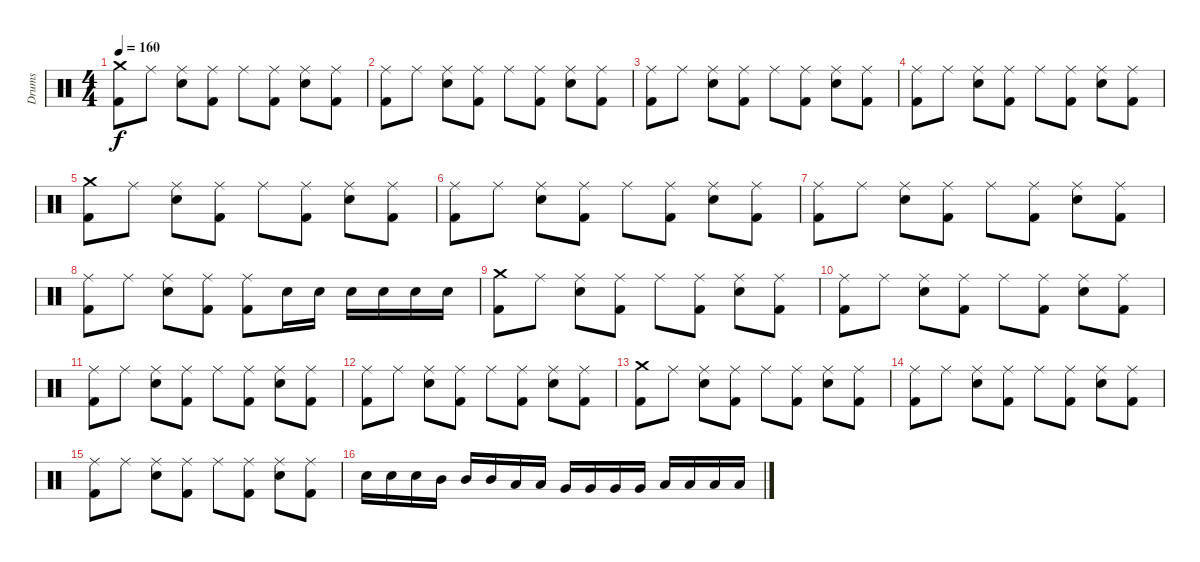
\track ("Drums" "Drums") {instrument percussion}
\staff {score}
\articulation defaults
\ts (4 4)
\tempo 160
\clef neutral
\ks c
("Kick (hit) 2" "Crash medium (hit)").8{dy f} "Ride (middle)".8 ("Electric Snare (hit)" "Ride (middle)").8 ("Kick (hit) 2" "Ride (middle)").8 "Ride (middle)".8 ("Kick (hit) 2" "Ride (middle)").8 ("Electric Snare (hit)" "Ride (middle)").8 ("Kick (hit) 2" "Ride (middle)").8 |
("Kick (hit) 2" "Ride (middle)").8 "Ride (middle)".8 ("Electric Snare (hit)" "Ride (middle)").8 ("Kick (hit) 2" "Ride (middle)").8 "Ride (middle)".8 ("Kick (hit) 2" "Ride (middle)").8 ("Electric Snare (hit)" "Ride (middle)").8 ("Kick (hit) 2" "Ride (middle)").8 |
("Kick (hit) 2" "Ride (middle)").8 "Ride (middle)".8 ("Electric Snare (hit)" "Ride (middle)").8 ("Kick (hit) 2" "Ride (middle)").8 "Ride (middle)".8 ("Kick (hit) 2" "Ride (middle)").8 ("Electric Snare (hit)" "Ride (middle)").8 ("Kick (hit) 2" "Ride (middle)").8 |
("Kick (hit) 2" "Ride (middle)").8 "Ride (middle)".8 ("Electric Snare (hit)" "Ride (middle)").8 ("Kick (hit) 2" "Ride (middle)").8 "Ride (middle)".8 ("Kick (hit) 2" "Ride (middle)").8 ("Electric Snare (hit)" "Ride (middle)").8 ("Kick (hit) 2" "Ride (middle)").8 |
("Kick (hit) 2" "Crash medium (hit)").8 "Ride (middle)".8 ("Electric Snare (hit)" "Ride (middle)").8 ("Kick (hit) 2" "Ride (middle)").8 "Ride (middle)".8 ("Kick (hit) 2" "Ride (middle)").8 ("Electric Snare (hit)" "Ride (middle)").8 ("Kick (hit) 2" "Ride (middle)").8 |
("Kick (hit) 2" "Ride (middle)").8 "Ride (middle)".8 ("Electric Snare (hit)" "Ride (middle)").8 ("Kick (hit) 2" "Ride (middle)").8 "Ride (middle)".8 ("Kick (hit) 2" "Ride (middle)").8 ("Electric Snare (hit)" "Ride (middle)").8 ("Kick (hit) 2" "Ride (middle)").8 |
("Kick (hit) 2" "Ride (middle)").8 "Ride (middle)".8 ("Electric Snare (hit)" "Ride (middle)").8 ("Kick (hit) 2" "Ride (middle)").8 "Ride (middle)".8 ("Kick (hit) 2" "Ride (middle)").8 ("Electric Snare (hit)" "Ride (middle)").8 ("Kick (hit) 2" "Ride (middle)").8 |
("Kick (hit) 2" "Ride (middle)").8 "Ride (middle)".8 ("Electric Snare (hit)" "Ride (middle)").8 ("Kick (hit) 2" "Ride (middle)").8 ("Kick (hit) 2" "Ride (middle)").8 "Electric Snare (hit)".16 "Electric Snare (hit)".16 "Electric Snare (hit)".16 "Electric Snare (hit)".16 "Electric Snare (hit)".16 "Electric Snare (hit)".16 |
("Kick (hit) 2" "Crash medium (hit)").8 "Ride (middle)".8 ("Electric Snare (hit)" "Ride (middle)").8 ("Kick (hit) 2" "Ride (middle)").8 "Ride (middle)".8 ("Kick (hit) 2" "Ride (middle)").8 ("Electric Snare (hit)" "Ride (middle)").8 ("Kick (hit) 2" "Ride (middle)").8 |
("Kick (hit) 2" "Ride (middle)").8 "Ride (middle)".8 ("Electric Snare (hit)" "Ride (middle)").8 ("Kick (hit) 2" "Ride (middle)").8 "Ride (middle)".8 ("Kick (hit) 2" "Ride (middle)").8 ("Electric Snare (hit)" "Ride (middle)").8 ("Kick (hit) 2" "Ride (middle)").8 |
("Kick (hit) 2" "Ride (middle)").8 "Ride (middle)".8 ("Electric Snare (hit)" "Ride (middle)").8 ("Kick (hit) 2" "Ride (middle)").8 "Ride (middle)".8 ("Kick (hit) 2" "Ride (middle)").8 ("Electric Snare (hit)" "Ride (middle)").8 ("Kick (hit) 2" "Ride (middle)").8 |
("Kick (hit) 2" "Ride (middle)").8 "Ride (middle)".8 ("Electric Snare (hit)" "Ride (middle)").8 ("Kick (hit) 2" "Ride (middle)").8 "Ride (middle)".8 ("Kick (hit) 2" "Ride (middle)").8 ("Electric Snare (hit)" "Ride (middle)").8 ("Kick (hit) 2" "Ride (middle)").8 |
("Kick (hit) 2" "Crash medium (hit)").8 "Ride (middle)".8 ("Electric Snare (hit)" "Ride (middle)").8 ("Kick (hit) 2" "Ride (middle)").8 "Ride (middle)".8 ("Kick (hit) 2" "Ride (middle)").8 ("Electric Snare (hit)" "Ride (middle)").8 ("Kick (hit) 2" "Ride (middle)").8 |
("Kick (hit) 2" "Ride (middle)").8 "Ride (middle)".8 ("Electric Snare (hit)" "Ride (middle)").8 ("Kick (hit) 2" "Ride (middle)").8 "Ride (middle)".8 ("Kick (hit) 2" "Ride (middle)").8 ("Electric Snare (hit)" "Ride (middle)").8 ("Kick (hit) 2" "Ride (middle)").8 |
("Kick (hit) 2" "Ride (middle)").8 "Ride (middle)".8 ("Electric Snare (hit)" "Ride (middle)").8 ("Kick (hit) 2" "Ride (middle)").8 "Ride (middle)".8 ("Kick (hit) 2" "Ride (middle)").8 ("Electric Snare (hit)" "Ride (middle)").8 ("Kick (hit) 2" "Ride (middle)").8 |
"Electric Snare (hit)".16 "Electric Snare (hit)".16 "Electric Snare (hit)".16 "Mid Tom (hit)".16 "Mid Tom (hit)".16 "Mid Tom (hit)".16 "Low Tom (hit)".16 "Low Tom (hit)".16 "Very Low Tom (hit)".16 "Very Low Tom (hit)".16 "Very Low Tom (hit)".16 "Very Low Tom (hit)".16 "Low Floor Tom (hit)".16 "Low Floor Tom (hit)".16 "Low Floor Tom (hit)".16 "Low Floor Tom (hit)".16
